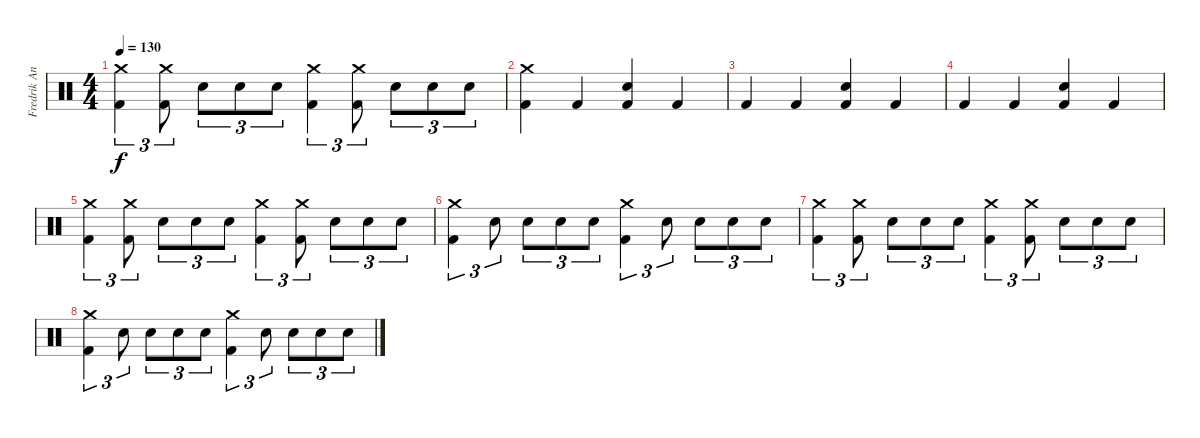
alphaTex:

\track ("Fredrik Andersson" "Fredrik An") {instrument percussion}
\staff {score}
\articulation defaults
\ts (4 4)
\tempo 130
\clef neutral
\ks c
("Crash medium (hit)" "Kick (hit) 2").4{tu (3 2) dy f} ("Crash medium (hit)" "Kick (hit) 2").8{tu (3 2)} "Electric Snare (hit)".8{tu (3 2)} "Electric Snare (hit)".8{tu (3 2)} "Electric Snare (hit)".8{tu (3 2)} ("Crash medium (hit)" "Kick (hit) 2").4{tu (3 2)} ("Crash medium (hit)" "Kick (hit) 2").8{tu (3 2)} "Electric Snare (hit)".8{tu (3 2)} "Electric Snare (hit)".8{tu (3 2)} "Electric Snare (hit)".8{tu (3 2)} |
("Crash medium (hit)" "Kick (hit) 2").4 "Kick (hit) 2".4 ("Electric Snare (hit)" "Kick (hit) 2").4 "Kick (hit) 2".4 |
"Kick (hit) 2".4 "Kick (hit) 2".4 ("Electric Snare (hit)" "Kick (hit) 2").4 "Kick (hit) 2".4 |
"Kick (hit) 2".4 "Kick (hit) 2".4 ("Electric Snare (hit)" "Kick (hit) 2").4 "Kick (hit) 2".4 |
("Crash medium (hit)" "Kick (hit) 2").4{tu (3 2)} ("Crash medium (hit)" "Kick (hit) 2").8{tu (3 2)} "Electric Snare (hit)".8{tu (3 2)} "Electric Snare (hit)".8{tu (3 2)} "Electric Snare (hit)".8{tu (3 2)} ("Crash medium (hit)" "Kick (hit) 2").4{tu (3 2)} ("Crash medium (hit)" "Kick (hit) 2").8{tu (3 2)} "Electric Snare (hit)".8{tu (3 2)} "Electric Snare (hit)".8{tu (3 2)} "Electric Snare (hit)".8{tu (3 2)} |
("Crash medium (hit)" "Kick (hit) 2").4{tu (3 2)} "Electric Snare (hit)".8{tu (3 2)} "Electric Snare (hit)".8{tu (3 2)} "Electric Snare (hit)".8{tu (3 2)} "Electric Snare (hit)".8{tu (3 2)} ("Crash medium (hit)" "Kick (hit) 2").4{tu (3 2)} "Electric Snare (hit)".8{tu (3 2)} "Electric Snare (hit)".8{tu (3 2)} "Electric Snare (hit)".8{tu (3 2)} "Electric Snare (hit)".8{tu (3 2)} |
("Crash medium (hit)" "Kick (hit) 2").4{tu (3 2)} ("Crash medium (hit)" "Kick (hit) 2").8{tu (3 2)} "Electric Snare (hit)".8{tu (3 2)} "Electric Snare (hit)".8{tu (3 2)} "Electric Snare (hit)".8{tu (3 2)} ("Crash medium (hit)" "Kick (hit) 2").4{tu (3 2)} ("Crash medium (hit)" "Kick (hit) 2").8{tu (3 2)} "Electric Snare (hit)".8{tu (3 2)} "Electric Snare (hit)".8{tu (3 2)} "Electric Snare (hit)".8{tu (3 2)} |
("Crash medium (hit)" "Kick (hit) 2").4{tu (3 2)} "Electric Snare (hit)".8{tu (3 2)} "Electric Snare (hit)".8{tu (3 2)} "Electric Snare (hit)".8{tu (3 2)} "Electric Snare (hit)".8{tu (3 2)} ("Crash medium (hit)" "Kick (hit) 2").4{tu (3 2)} "Electric Snare (hit)".8{tu (3 2)} "Electric Snare (hit)".8{tu (3 2)} "Electric Snare (hit)".8{tu (3 2)} "Electric Snare (hit)".8{tu (3 2)}
